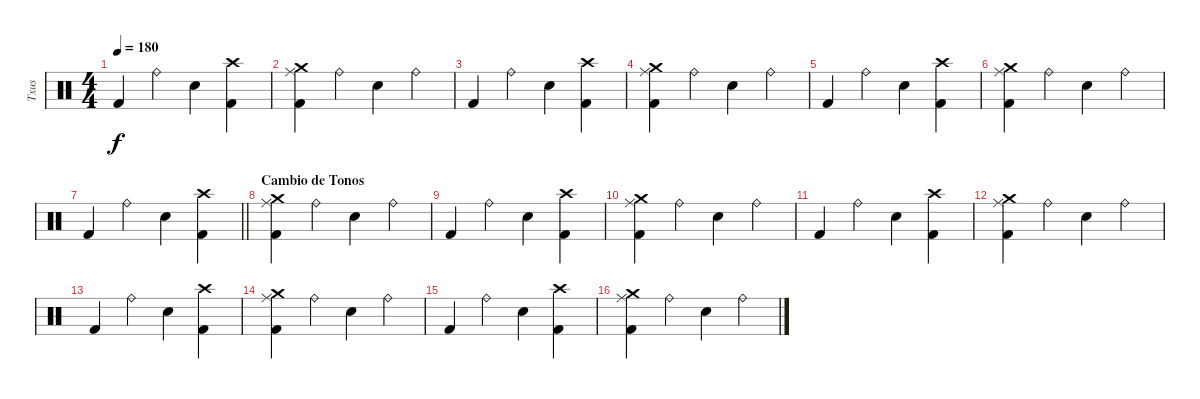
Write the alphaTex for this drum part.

\track ("Txus" "Txus") {instrument percussion}
\staff {score}
\articulation defaults
\ts (4 4)
\tempo 180
\clef neutral
\ks c "Kick (hit) 2".4{dy f} "Ride (bell)".4 "Electric Snare (hit)".4
("Crash high (hit)" "Kick (hit) 2").4 |
("Crash medium (hit)" "Ride (middle)" "Kick (hit) 2").4 "Ride (bell)".4 "Electric Snare (hit)".4 "Ride (bell)".4 |
"Kick (hit) 2".4 "Ride (bell)".4 "Electric Snare (hit)".4 ("Crash high (hit)" "Kick (hit) 2").4 |
("Crash medium (hit)" "Ride (middle)" "Kick (hit) 2").4 "Ride (bell)".4 "Electric Snare (hit)".4 "Ride (bell)".4 |
"Kick (hit) 2".4 "Ride (bell)".4 "Electric Snare (hit)".4 ("Crash high (hit)" "Kick (hit) 2").4 |
("Crash medium (hit)" "Ride (middle)" "Kick (hit) 2").4 "Ride (bell)".4 "Electric Snare (hit)".4 "Ride (bell)".4 |
\barLineRight lightlight "Kick (hit) 2".4 "Ride (bell)".4 "Electric Snare (hit)".4
("Crash high (hit)" "Kick (hit) 2").4 |
\section ("" "Cambio de Tonos")
("Crash medium (hit)" "Ride (middle)" "Kick (hit) 2").4 "Ride (bell)".4 "Electric Snare (hit)".4 "Ride (bell)".4 |
"Kick (hit) 2".4 "Ride (bell)".4 "Electric Snare (hit)".4 ("Crash high (hit)" "Kick (hit) 2").4 |
("Crash medium (hit)" "Ride (middle)" "Kick (hit) 2").4 "Ride (bell)".4 "Electric Snare (hit)".4 "Ride (bell)".4 |
"Kick (hit) 2".4 "Ride (bell)".4 "Electric Snare (hit)".4 ("Crash high (hit)" "Kick (hit) 2").4 |
("Crash medium (hit)" "Ride (middle)" "Kick (hit) 2").4 "Ride (bell)".4 "Electric Snare (hit)".4 "Ride (bell)".4 |
"Kick (hit) 2".4 "Ride (bell)".4 "Electric Snare (hit)".4 ("Crash high (hit)" "Kick (hit) 2").4 |
("Crash medium (hit)" "Ride (middle)" "Kick (hit) 2").4 "Ride (bell)".4 "Electric Snare (hit)".4 "Ride (bell)".4 |
"Kick (hit) 2".4 "Ride (bell)".4 "Electric Snare (hit)".4 ("Crash high (hit)" "Kick (hit) 2").4 |
("Crash medium (hit)" "Ride (middle)" "Kick (hit) 2").4 "Ride (bell)".4 "Electric Snare (hit)".4 "Ride (bell)".4
